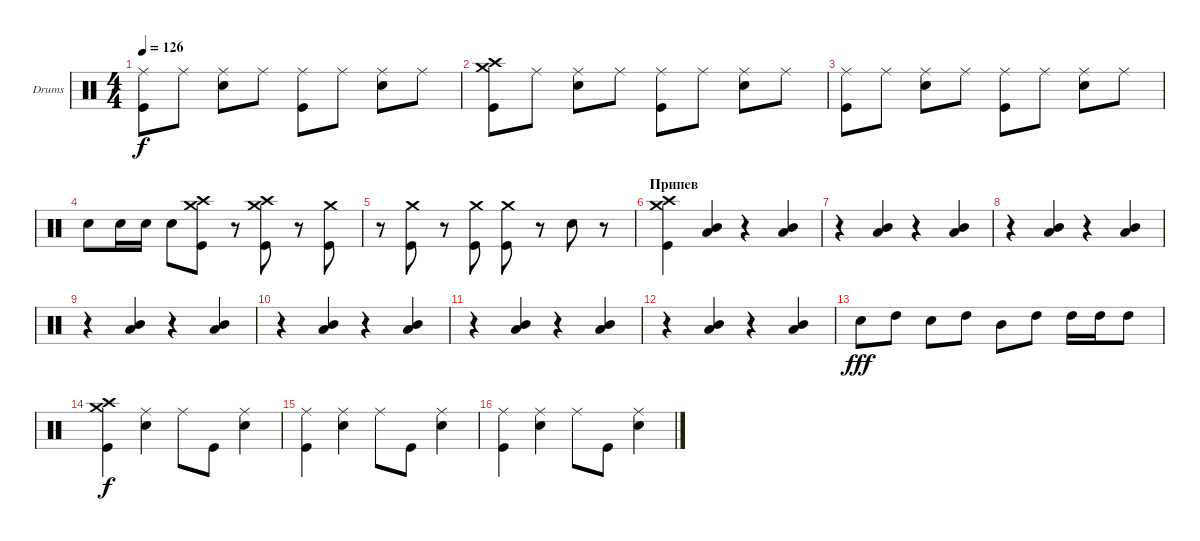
\bracketExtendMode groupsimilarinstruments
\firstSystemTrackNameOrientation horizontal
\otherSystemsTrackNameOrientation horizontal
\track ("Александр Манякин" "Drums") {instrument percussion}
\staff {score}
\articulation defaults
\ts (4 4)
\tempo 126
\clef neutral
\ks c
("Kick (hit)" "Ride (middle)").8{dy f} "Ride (middle)".8 ("Snare (hit) 2" "Ride (middle)").8 "Ride (middle)".8 ("Kick (hit)" "Ride (middle)").8 "Ride (middle)".8 ("Snare (hit) 2" "Ride (middle)").8 "Ride (middle)".8 |
("Kick (hit)" "Crash medium (hit)" "Crash high (hit)").8 "Ride (middle)".8 ("Snare (hit) 2" "Ride (middle)").8 "Ride (middle)".8 ("Kick (hit)" "Ride (middle)").8 "Ride (middle)".8 ("Snare (hit) 2" "Ride (middle)").8 "Ride (middle)".8 |
("Kick (hit)" "Ride (middle)").8 "Ride (middle)".8 ("Snare (hit) 2" "Ride (middle)").8 "Ride (middle)".8 ("Kick (hit)" "Ride (middle)").8 "Ride (middle)".8 ("Snare (hit) 2" "Ride (middle)").8 "Ride (middle)".8 |
"Snare (hit) 2".8 "Snare (hit) 2".16 "Snare (hit) 2".16 "Snare (hit) 2".8 ("Kick (hit)" "Crash medium (hit)" "Crash high (hit)").8 r.8 ("Kick (hit)" "Crash medium (hit)" "Crash high (hit)").8 r.8 ("Kick (hit)" "Crash medium (hit)").8 |
r.8 ("Kick (hit)" "Crash medium (hit)").8 r.8 ("Kick (hit)" "Crash medium (hit)").8 ("Kick (hit)" "Crash medium (hit)").8 r.8 "Snare (hit) 2".8 r.8 |
\section ("" "Припев")
("Kick (hit)" "Crash medium (hit)" "Crash high (hit)").4 ("Low Tom (hit)" "Mid Tom (hit)").4 r.4 ("Low Tom (hit)" "Mid Tom (hit)").4 |
r.4 ("Low Tom (hit)" "Mid Tom (hit)").4 r.4 ("Low Tom (hit)" "Mid Tom (hit)").4 |
r.4 ("Low Tom (hit)" "Mid Tom (hit)").4 r.4 ("Low Tom (hit)" "Mid Tom (hit)").4 |
r.4 ("Low Tom (hit)" "Mid Tom (hit)").4 r.4 ("Low Tom (hit)" "Mid Tom (hit)").4 |
r.4 ("Low Tom (hit)" "Mid Tom (hit)").4 r.4 ("Low Tom (hit)" "Mid Tom (hit)").4 |
r.4 ("Low Tom (hit)" "Mid Tom (hit)").4 r.4 ("Low Tom (hit)" "Mid Tom (hit)").4 |
r.4 ("Low Tom (hit)" "Mid Tom (hit)").4 r.4 ("Low Tom (hit)" "Mid Tom (hit)").4 |
"Snare (hit) 2".8{dy fff} "High Tom (hit)".8 "Snare (hit) 2".8 "High Tom (hit)".8 "Mid Tom (hit)".8 "High Tom (hit)".8 "High Tom (hit)".16 "High Tom (hit)".16 "High Tom (hit)".8 |
("Kick (hit)" "Crash medium (hit)" "Crash high (hit)").4{dy f} ("Snare (hit) 2" "Ride (middle)").4 "Ride (middle)".8 "Kick (hit)".8 ("Snare (hit) 2" "Ride (middle)").4 |
("Kick (hit)" "Ride (middle)").4 ("Snare (hit) 2" "Ride (middle)").4 "Ride (middle)".8 "Kick (hit)".8 ("Snare (hit) 2" "Ride (middle)").4 |
("Kick (hit)" "Ride (middle)").4 ("Snare (hit) 2" "Ride (middle)").4 "Ride (middle)".8 "Kick (hit)".8 ("Snare (hit) 2" "Ride (middle)").4
